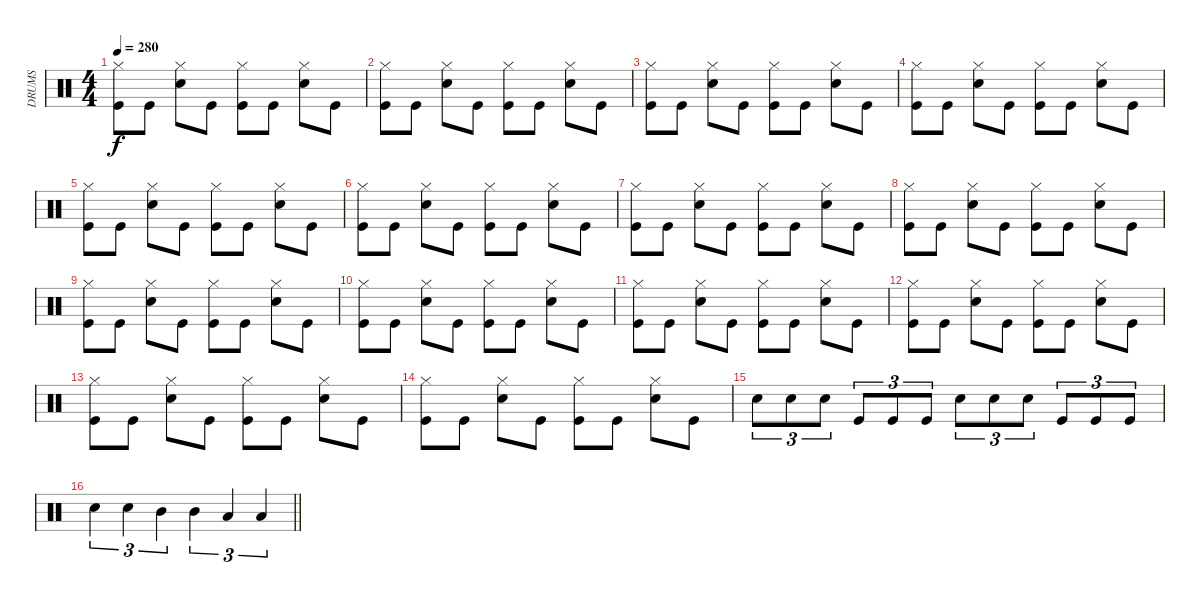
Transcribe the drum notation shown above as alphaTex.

\track ("DRUMS" "DRUMS") {instrument percussion}
\staff {score}
\articulation defaults
\ts (4 4)
\tempo 280
\clef neutral
\ks c
("Hi-Hat (closed)" "Kick (hit)").8{dy f} "Kick (hit)".8 ("Hi-Hat (closed)" "Snare (hit) 2").8 "Kick (hit)".8 ("Hi-Hat (closed)" "Kick (hit)").8 "Kick (hit)".8 ("Hi-Hat (closed)" "Snare (hit) 2").8 "Kick (hit)".8 |
("Hi-Hat (closed)" "Kick (hit)").8 "Kick (hit)".8 ("Hi-Hat (closed)" "Snare (hit) 2").8 "Kick (hit)".8 ("Hi-Hat (closed)" "Kick (hit)").8 "Kick (hit)".8 ("Hi-Hat (closed)" "Snare (hit) 2").8 "Kick (hit)".8 |
("Hi-Hat (closed)" "Kick (hit)").8 "Kick (hit)".8 ("Hi-Hat (closed)" "Snare (hit) 2").8 "Kick (hit)".8 ("Hi-Hat (closed)" "Kick (hit)").8 "Kick (hit)".8 ("Hi-Hat (closed)" "Snare (hit) 2").8 "Kick (hit)".8 |
("Hi-Hat (closed)" "Kick (hit)").8 "Kick (hit)".8 ("Hi-Hat (closed)" "Snare (hit) 2").8 "Kick (hit)".8 ("Hi-Hat (closed)" "Kick (hit)").8 "Kick (hit)".8 ("Hi-Hat (closed)" "Snare (hit) 2").8 "Kick (hit)".8 |
("Hi-Hat (closed)" "Kick (hit)").8 "Kick (hit)".8 ("Hi-Hat (closed)" "Snare (hit) 2").8 "Kick (hit)".8 ("Hi-Hat (closed)" "Kick (hit)").8 "Kick (hit)".8 ("Hi-Hat (closed)" "Snare (hit) 2").8 "Kick (hit)".8 |
("Hi-Hat (closed)" "Kick (hit)").8 "Kick (hit)".8 ("Hi-Hat (closed)" "Snare (hit) 2").8 "Kick (hit)".8 ("Hi-Hat (closed)" "Kick (hit)").8 "Kick (hit)".8 ("Hi-Hat (closed)" "Snare (hit) 2").8 "Kick (hit)".8 |
("Hi-Hat (closed)" "Kick (hit)").8 "Kick (hit)".8 ("Hi-Hat (closed)" "Snare (hit) 2").8 "Kick (hit)".8 ("Hi-Hat (closed)" "Kick (hit)").8 "Kick (hit)".8 ("Hi-Hat (closed)" "Snare (hit) 2").8 "Kick (hit)".8 |
("Hi-Hat (closed)" "Kick (hit)").8 "Kick (hit)".8 ("Hi-Hat (closed)" "Snare (hit) 2").8 "Kick (hit)".8 ("Hi-Hat (closed)" "Kick (hit)").8 "Kick (hit)".8 ("Hi-Hat (closed)" "Snare (hit) 2").8 "Kick (hit)".8 |
("Hi-Hat (closed)" "Kick (hit)").8 "Kick (hit)".8 ("Hi-Hat (closed)" "Snare (hit) 2").8 "Kick (hit)".8 ("Hi-Hat (closed)" "Kick (hit)").8 "Kick (hit)".8 ("Hi-Hat (closed)" "Snare (hit) 2").8 "Kick (hit)".8 |
("Hi-Hat (closed)" "Kick (hit)").8 "Kick (hit)".8 ("Hi-Hat (closed)" "Snare (hit) 2").8 "Kick (hit)".8 ("Hi-Hat (closed)" "Kick (hit)").8 "Kick (hit)".8 ("Hi-Hat (closed)" "Snare (hit) 2").8 "Kick (hit)".8 |
("Hi-Hat (closed)" "Kick (hit)").8 "Kick (hit)".8 ("Hi-Hat (closed)" "Snare (hit) 2").8 "Kick (hit)".8 ("Hi-Hat (closed)" "Kick (hit)").8 "Kick (hit)".8 ("Hi-Hat (closed)" "Snare (hit) 2").8 "Kick (hit)".8 |
("Hi-Hat (closed)" "Kick (hit)").8 "Kick (hit)".8 ("Hi-Hat (closed)" "Snare (hit) 2").8 "Kick (hit)".8 ("Hi-Hat (closed)" "Kick (hit)").8 "Kick (hit)".8 ("Hi-Hat (closed)" "Snare (hit) 2").8 "Kick (hit)".8 |
("Hi-Hat (closed)" "Kick (hit)").8 "Kick (hit)".8 ("Hi-Hat (closed)" "Snare (hit) 2").8 "Kick (hit)".8 ("Hi-Hat (closed)" "Kick (hit)").8 "Kick (hit)".8 ("Hi-Hat (closed)" "Snare (hit) 2").8 "Kick (hit)".8 |
("Hi-Hat (closed)" "Kick (hit)").8 "Kick (hit)".8 ("Hi-Hat (closed)" "Snare (hit) 2").8 "Kick (hit)".8 ("Hi-Hat (closed)" "Kick (hit)").8 "Kick (hit)".8 ("Hi-Hat (closed)" "Snare (hit) 2").8 "Kick (hit)".8 |
"Snare (hit) 2".8{tu (3 2)} "Snare (hit) 2".8{tu (3 2)} "Snare (hit) 2".8{tu (3 2)} "Kick (hit)".8{tu (3 2)} "Kick (hit)".8{tu (3 2)} "Kick (hit)".8{tu (3 2)} "Snare (hit) 2".8{tu (3 2)} "Snare (hit) 2".8{tu (3 2)} "Snare (hit) 2".8{tu (3 2)} "Kick (hit)".8{tu (3 2)} "Kick (hit)".8{tu (3 2)} "Kick (hit)".8{tu (3 2)} |
\barLineRight lightlight "Snare (hit) 2".4{tu (3 2)} "Snare (hit) 2".4{tu (3 2)} "Mid Tom (hit)".4{tu (3 2)} "Mid Tom (hit)".4{tu (3 2)} "Low Tom (hit)".4{tu (3 2)} "Low Tom (hit)".4{tu (3 2)}
